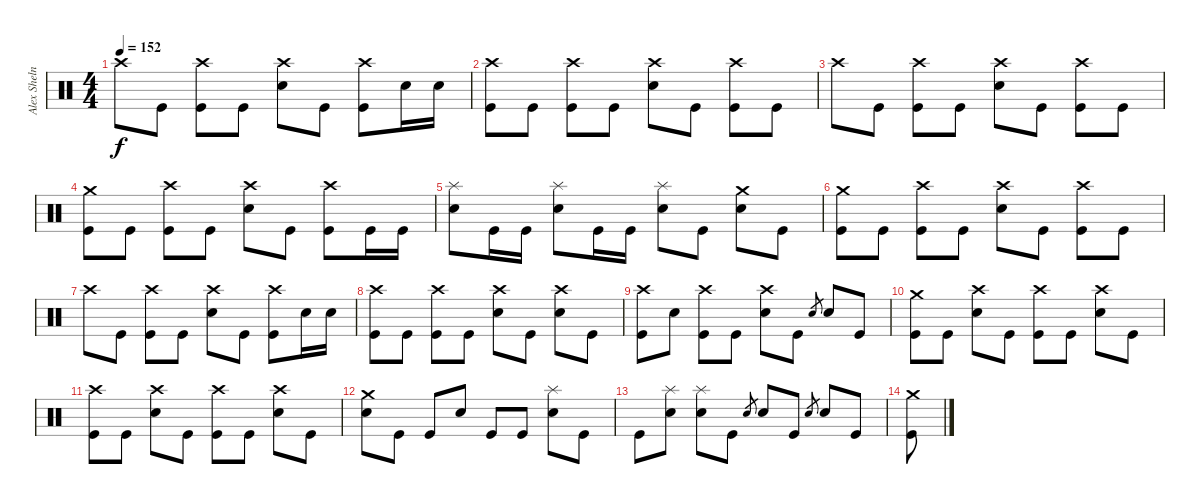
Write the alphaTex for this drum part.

\track ("Alex Shelnut" "Alex Sheln") {instrument percussion}
\staff {score}
\articulation defaults
\ts (4 4)
\tempo 152
\clef neutral
\ks c "Crash high (hit)".8{dy f} "Kick (hit)".8
("Crash high (hit)" "Kick (hit)").8 "Kick (hit)".8 ("Crash high (hit)" "Electric Snare (hit)").8 "Kick (hit)".8 ("Crash high (hit)" "Kick (hit)").8 "Electric Snare (hit)".16 "Electric Snare (hit)".16 |
("Crash high (hit)" "Kick (hit)").8 "Kick (hit)".8 ("Crash high (hit)" "Kick (hit)").8 "Kick (hit)".8 ("Crash high (hit)" "Electric Snare (hit)").8 "Kick (hit)".8 ("Crash high (hit)" "Kick (hit)").8 "Kick (hit)".8 |
"Crash high (hit)".8 "Kick (hit)".8 ("Crash high (hit)" "Kick (hit)").8 "Kick (hit)".8 ("Crash high (hit)" "Electric Snare (hit)").8 "Kick (hit)".8 ("Crash high (hit)" "Kick (hit)").8 "Kick (hit)".8 |
("Crash medium (hit)" "Kick (hit)").8 "Kick (hit)".8 ("Crash high (hit)" "Kick (hit)").8 "Kick (hit)".8 ("Crash high (hit)" "Electric Snare (hit)").8 "Kick (hit)".8 ("Crash high (hit)" "Kick (hit)").8 "Kick (hit)".16 "Kick (hit)".16 |
("Splash (hit)" "Electric Snare (hit)").8 "Kick (hit)".16 "Kick (hit)".16 ("Splash (hit)" "Electric Snare (hit)").8 "Kick (hit)".16 "Kick (hit)".16 ("Splash (hit)" "Electric Snare (hit)").8 "Kick (hit)".8 ("Crash medium (hit)" "Electric Snare (hit)").8 "Kick (hit)".8 |
("Crash medium (hit)" "Kick (hit)").8 "Kick (hit)".8 ("Crash high (hit)" "Kick (hit)").8 "Kick (hit)".8 ("Crash high (hit)" "Electric Snare (hit)").8 "Kick (hit)".8 ("Crash high (hit)" "Kick (hit)").8 "Kick (hit)".8 |
"Crash high (hit)".8 "Kick (hit)".8 ("Crash high (hit)" "Kick (hit)").8 "Kick (hit)".8 ("Crash high (hit)" "Electric Snare (hit)").8 "Kick (hit)".8 ("Crash high (hit)" "Kick (hit)").8 "Electric Snare (hit)".16 "Electric Snare (hit)".16 |
("Crash high (hit)" "Kick (hit)").8 "Kick (hit)".8 ("Crash high (hit)" "Kick (hit)").8 "Kick (hit)".8 ("Crash high (hit)" "Electric Snare (hit)").8 "Kick (hit)".8 ("Crash high (hit)" "Electric Snare (hit)").8 "Kick (hit)".8 |
("Crash high (hit)" "Kick (hit)").8 "Electric Snare (hit)".8 ("Crash high (hit)" "Kick (hit)").8 "Kick (hit)".8 ("Crash high (hit)" "Electric Snare (hit)").8 "Kick (hit)".8 "Electric Snare (hit)".8{gr} "Electric Snare (hit)".8 "Kick (hit)".8 |
("Crash medium (hit)" "Kick (hit)").8 "Kick (hit)".8 ("Crash high (hit)" "Electric Snare (hit)").8 "Kick (hit)".8 ("Crash high (hit)" "Kick (hit)").8 "Kick (hit)".8 ("Crash high (hit)" "Electric Snare (hit)").8 "Kick (hit)".8 |
("Crash high (hit)" "Kick (hit)").8 "Kick (hit)".8 ("Crash high (hit)" "Electric Snare (hit)").8 "Kick (hit)".8 ("Crash high (hit)" "Kick (hit)").8 "Kick (hit)".8 ("Crash high (hit)" "Electric Snare (hit)").8 "Kick (hit)".8 |
("Crash medium (hit)" "Electric Snare (hit)").8 "Kick (hit)".8 "Kick (hit)".8 "Electric Snare (hit)".8 "Kick (hit)".8 "Kick (hit)".8 ("Splash (hit)" "Electric Snare (hit)").8 "Kick (hit)".8 |
"Kick (hit)".8 ("Splash (hit)" "Electric Snare (hit)").8 ("Splash (hit)" "Electric Snare (hit)").8 "Kick (hit)".8 "Electric Snare (hit)".8{gr} "Electric Snare (hit)".8 "Kick (hit)".8 "Electric Snare (hit)".8{gr} "Electric Snare (hit)".8 "Kick (hit)".8 |
("Crash medium (hit)" "Kick (hit)").8
